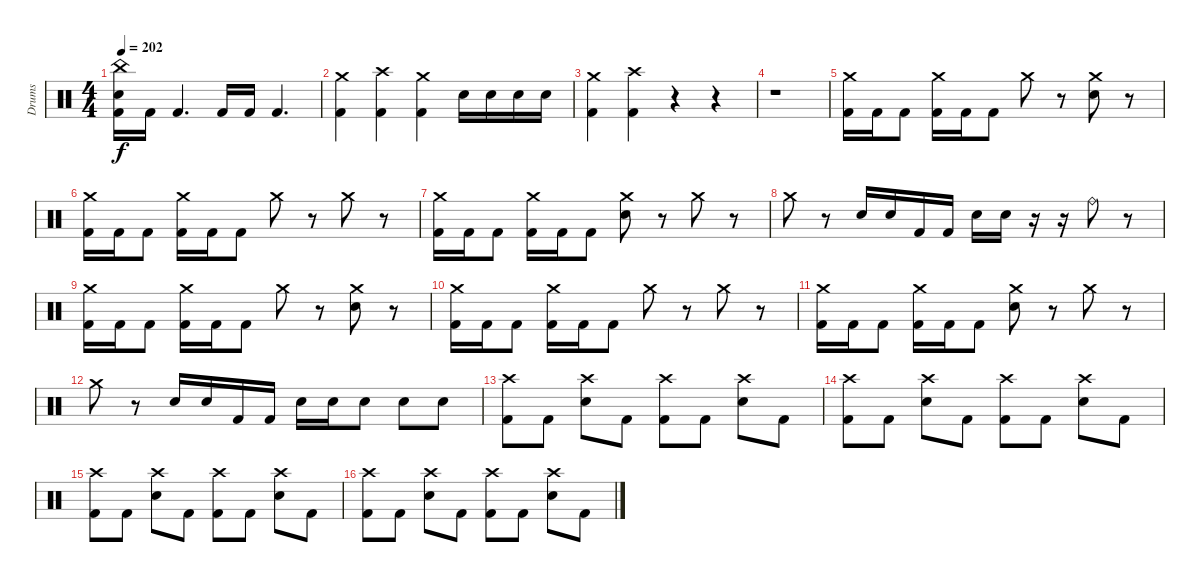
\track ("Drums" "Drums") {instrument percussion}
\staff {score}
\articulation defaults
\ts (4 4)
\tempo 202
\clef neutral
\ks c
("China (hit)" "Electric Snare (hit)" "Kick (hit) 2").16{dy f} "Kick (hit) 2".16 "Kick (hit) 2".4{d} "Kick (hit) 2".16 "Kick (hit) 2".16 "Kick (hit) 2".4{d} |
("Crash medium (hit)" "Kick (hit) 2").4 ("Crash high (hit)" "Kick (hit) 2").4 ("Crash medium (hit)" "Kick (hit) 2").4 "Electric Snare (hit)".16 "Electric Snare (hit)".16 "Electric Snare (hit)".16 "Electric Snare (hit)".16 |
("Crash medium (hit)" "Kick (hit) 2").4 ("Crash high (hit)" "Kick (hit) 2").4 r.4 r.4 |
r.1 |
("Crash medium (hit)" "Kick (hit) 2").16 "Kick (hit) 2".16 "Kick (hit) 2".8 ("Crash medium (hit)" "Kick (hit) 2").16 "Kick (hit) 2".16 "Kick (hit) 2".8 "Crash medium (hit)".8 r.8 ("Crash medium (hit)" "Electric Snare (hit)").8 r.8 |
("Crash medium (hit)" "Kick (hit) 2").16 "Kick (hit) 2".16 "Kick (hit) 2".8 ("Crash medium (hit)" "Kick (hit) 2").16 "Kick (hit) 2".16 "Kick (hit) 2".8 "Crash medium (hit)".8 r.8 "Crash medium (hit)".8 r.8 |
("Crash medium (hit)" "Kick (hit) 2").16 "Kick (hit) 2".16 "Kick (hit) 2".8 ("Crash medium (hit)" "Kick (hit) 2").16 "Kick (hit) 2".16 "Kick (hit) 2".8 ("Crash medium (hit)" "Electric Snare (hit)").8 r.8 "Crash medium (hit)".8 r.8 |
"Crash medium (hit)".8 r.8 "Electric Snare (hit)".16 "Electric Snare (hit)".16 "Kick (hit) 2".16 "Kick (hit) 2".16 "Electric Snare (hit)".16 "Electric Snare (hit)".16 r.16 r.16 "Ride (bell)".8 r.8 |
("Crash medium (hit)" "Kick (hit) 2").16 "Kick (hit) 2".16 "Kick (hit) 2".8 ("Crash medium (hit)" "Kick (hit) 2").16 "Kick (hit) 2".16 "Kick (hit) 2".8 "Crash medium (hit)".8 r.8 ("Crash medium (hit)" "Electric Snare (hit)").8 r.8 |
("Crash medium (hit)" "Kick (hit) 2").16 "Kick (hit) 2".16 "Kick (hit) 2".8 ("Crash medium (hit)" "Kick (hit) 2").16 "Kick (hit) 2".16 "Kick (hit) 2".8 "Crash medium (hit)".8 r.8 "Crash medium (hit)".8 r.8 |
("Crash medium (hit)" "Kick (hit) 2").16 "Kick (hit) 2".16 "Kick (hit) 2".8 ("Crash medium (hit)" "Kick (hit) 2").16 "Kick (hit) 2".16 "Kick (hit) 2".8 ("Crash medium (hit)" "Electric Snare (hit)").8 r.8 "Crash medium (hit)".8 r.8 |
"Crash medium (hit)".8 r.8 "Electric Snare (hit)".16 "Electric Snare (hit)".16 "Kick (hit) 2".16 "Kick (hit) 2".16 "Electric Snare (hit)".16 "Electric Snare (hit)".16 "Electric Snare (hit)".8 "Electric Snare (hit)".8 "Electric Snare (hit)".8 |
("Crash high (hit)" "Kick (hit) 2").8 "Kick (hit) 2".8 ("Crash high (hit)" "Electric Snare (hit)").8 "Kick (hit) 2".8 ("Crash high (hit)" "Kick (hit) 2").8 "Kick (hit) 2".8 ("Crash high (hit)" "Electric Snare (hit)").8 "Kick (hit) 2".8 |
("Crash high (hit)" "Kick (hit) 2").8 "Kick (hit) 2".8 ("Crash high (hit)" "Electric Snare (hit)").8 "Kick (hit) 2".8 ("Crash high (hit)" "Kick (hit) 2").8 "Kick (hit) 2".8 ("Crash high (hit)" "Electric Snare (hit)").8 "Kick (hit) 2".8 |
("Crash high (hit)" "Kick (hit) 2").8 "Kick (hit) 2".8 ("Crash high (hit)" "Electric Snare (hit)").8 "Kick (hit) 2".8 ("Crash high (hit)" "Kick (hit) 2").8 "Kick (hit) 2".8 ("Crash high (hit)" "Electric Snare (hit)").8 "Kick (hit) 2".8 |
("Crash high (hit)" "Kick (hit) 2").8 "Kick (hit) 2".8 ("Crash high (hit)" "Electric Snare (hit)").8 "Kick (hit) 2".8 ("Crash high (hit)" "Kick (hit) 2").8 "Kick (hit) 2".8 ("Crash high (hit)" "Electric Snare (hit)").8 "Kick (hit) 2".8
